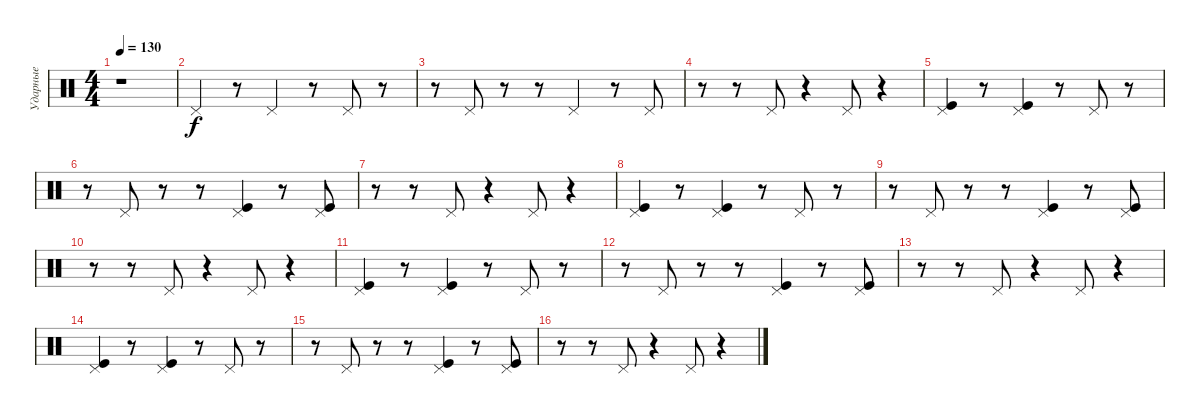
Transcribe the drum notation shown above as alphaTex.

\track ("Ударные" "Ударные") {instrument percussion}
\staff {score}
\articulation defaults
\ts (4 4)
\tempo 130
\clef neutral
\ks c
r.1{dy f} |
"Pedal Hi-Hat (hit)".4 r.8 "Pedal Hi-Hat (hit)".4 r.8 "Pedal Hi-Hat (hit)".8 r.8 |
r.8 "Pedal Hi-Hat (hit)".8 r.8 r.8 "Pedal Hi-Hat (hit)".4 r.8 "Pedal Hi-Hat (hit)".8 |
r.8 r.8 "Pedal Hi-Hat (hit)".8 r.4 "Pedal Hi-Hat (hit)".8 r.4 |
("Pedal Hi-Hat (hit)" "Kick (hit)").4 r.8 ("Pedal Hi-Hat (hit)" "Kick (hit)").4 r.8 "Pedal Hi-Hat (hit)".8 r.8 |
r.8 "Pedal Hi-Hat (hit)".8 r.8 r.8 ("Pedal Hi-Hat (hit)" "Kick (hit)").4 r.8 ("Pedal Hi-Hat (hit)" "Kick (hit)").8 |
r.8 r.8 "Pedal Hi-Hat (hit)".8 r.4 "Pedal Hi-Hat (hit)".8 r.4 |
("Pedal Hi-Hat (hit)" "Kick (hit)").4 r.8 ("Pedal Hi-Hat (hit)" "Kick (hit)").4 r.8 "Pedal Hi-Hat (hit)".8 r.8 |
r.8 "Pedal Hi-Hat (hit)".8 r.8 r.8 ("Pedal Hi-Hat (hit)" "Kick (hit)").4 r.8 ("Pedal Hi-Hat (hit)" "Kick (hit)").8 |
r.8 r.8 "Pedal Hi-Hat (hit)".8 r.4 "Pedal Hi-Hat (hit)".8 r.4 |
("Pedal Hi-Hat (hit)" "Kick (hit)").4 r.8 ("Pedal Hi-Hat (hit)" "Kick (hit)").4 r.8 "Pedal Hi-Hat (hit)".8 r.8 |
r.8 "Pedal Hi-Hat (hit)".8 r.8 r.8 ("Pedal Hi-Hat (hit)" "Kick (hit)").4 r.8 ("Pedal Hi-Hat (hit)" "Kick (hit)").8 |
r.8 r.8 "Pedal Hi-Hat (hit)".8 r.4 "Pedal Hi-Hat (hit)".8 r.4 |
("Pedal Hi-Hat (hit)" "Kick (hit)").4 r.8 ("Pedal Hi-Hat (hit)" "Kick (hit)").4 r.8 "Pedal Hi-Hat (hit)".8 r.8 |
r.8 "Pedal Hi-Hat (hit)".8 r.8 r.8 ("Pedal Hi-Hat (hit)" "Kick (hit)").4 r.8 ("Pedal Hi-Hat (hit)" "Kick (hit)").8 |
r.8 r.8 "Pedal Hi-Hat (hit)".8 r.4 "Pedal Hi-Hat (hit)".8 r.4
